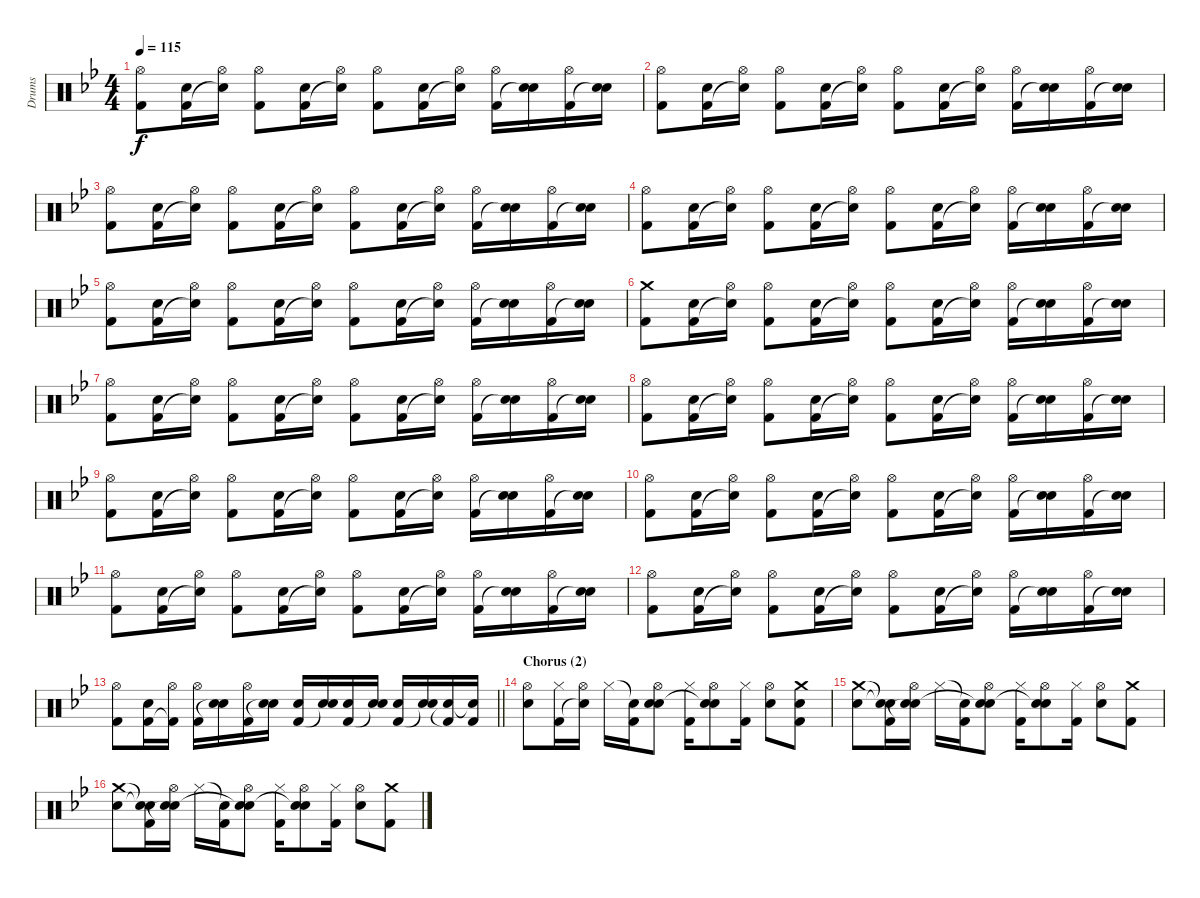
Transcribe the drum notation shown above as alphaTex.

\track ("Drums" "Drums") {instrument percussion}
\staff {score}
\articulation defaults
\ts (4 4)
\tempo 115
\clef neutral
\ks bb
("Hi-Hat (open)" "Kick (hit) 2").8{dy f} ("Electric Snare (hit)" "Kick (hit) 2").16 ("Hi-Hat (open)" "Snare (hit)"{t}).16 ("Hi-Hat (open)" "Kick (hit) 2").8 ("Electric Snare (hit)" "Kick (hit) 2").16 ("Hi-Hat (open)" "Snare (hit)"{t}).16 ("Hi-Hat (open)" "Kick (hit) 2").8 ("Electric Snare (hit)" "Kick (hit) 2").16 ("Hi-Hat (open)" "Snare (hit)"{t}).16 ("Hi-Hat (open)" "Kick (hit) 2").16 ("Electric Snare (hit)" "Snare (hit)"{t}).16 ("Hi-Hat (open)" "Kick (hit) 2").16 ("Electric Snare (hit)" "Snare (hit)"{t}).16 |
("Hi-Hat (open)" "Kick (hit) 2").8 ("Electric Snare (hit)" "Kick (hit) 2").16 ("Hi-Hat (open)" "Snare (hit)"{t}).16 ("Hi-Hat (open)" "Kick (hit) 2").8 ("Electric Snare (hit)" "Kick (hit) 2").16 ("Hi-Hat (open)" "Snare (hit)"{t}).16 ("Hi-Hat (open)" "Kick (hit) 2").8 ("Electric Snare (hit)" "Kick (hit) 2").16 ("Hi-Hat (open)" "Snare (hit)"{t}).16 ("Hi-Hat (open)" "Kick (hit) 2").16 ("Electric Snare (hit)" "Snare (hit)"{t}).16 ("Hi-Hat (open)" "Kick (hit) 2").16 ("Electric Snare (hit)" "Snare (hit)"{t}).16 |
("Hi-Hat (open)" "Kick (hit) 2").8 ("Electric Snare (hit)" "Kick (hit) 2").16 ("Hi-Hat (open)" "Snare (hit)"{t}).16 ("Hi-Hat (open)" "Kick (hit) 2").8 ("Electric Snare (hit)" "Kick (hit) 2").16 ("Hi-Hat (open)" "Snare (hit)"{t}).16 ("Hi-Hat (open)" "Kick (hit) 2").8 ("Electric Snare (hit)" "Kick (hit) 2").16 ("Hi-Hat (open)" "Snare (hit)"{t}).16 ("Hi-Hat (open)" "Kick (hit) 2").16 ("Electric Snare (hit)" "Snare (hit)"{t}).16 ("Hi-Hat (open)" "Kick (hit) 2").16 ("Electric Snare (hit)" "Snare (hit)"{t}).16 |
("Hi-Hat (open)" "Kick (hit) 2").8 ("Electric Snare (hit)" "Kick (hit) 2").16 ("Hi-Hat (open)" "Snare (hit)"{t}).16 ("Hi-Hat (open)" "Kick (hit) 2").8 ("Electric Snare (hit)" "Kick (hit) 2").16 ("Hi-Hat (open)" "Snare (hit)"{t}).16 ("Hi-Hat (open)" "Kick (hit) 2").8 ("Electric Snare (hit)" "Kick (hit) 2").16 ("Hi-Hat (open)" "Snare (hit)"{t}).16 ("Hi-Hat (open)" "Kick (hit) 2").16 ("Electric Snare (hit)" "Snare (hit)"{t}).16 ("Hi-Hat (open)" "Kick (hit) 2").16 ("Electric Snare (hit)" "Snare (hit)"{t}).16 |
("Hi-Hat (open)" "Kick (hit) 2").8 ("Electric Snare (hit)" "Kick (hit) 2").16 ("Hi-Hat (open)" "Snare (hit)"{t}).16 ("Hi-Hat (open)" "Kick (hit) 2").8 ("Electric Snare (hit)" "Kick (hit) 2").16 ("Hi-Hat (open)" "Snare (hit)"{t}).16 ("Hi-Hat (open)" "Kick (hit) 2").8 ("Electric Snare (hit)" "Kick (hit) 2").16 ("Hi-Hat (open)" "Snare (hit)"{t}).16 ("Hi-Hat (open)" "Kick (hit) 2").16 ("Electric Snare (hit)" "Snare (hit)"{t}).16 ("Hi-Hat (open)" "Kick (hit) 2").16 ("Electric Snare (hit)" "Snare (hit)"{t}).16 |
("Crash medium (hit)" "Kick (hit) 2").8 ("Electric Snare (hit)" "Kick (hit) 2").16 ("Hi-Hat (open)" "Snare (hit)"{t}).16 ("Hi-Hat (open)" "Kick (hit) 2").8 ("Electric Snare (hit)" "Kick (hit) 2").16 ("Hi-Hat (open)" "Snare (hit)"{t}).16 ("Hi-Hat (open)" "Kick (hit) 2").8 ("Electric Snare (hit)" "Kick (hit) 2").16 ("Hi-Hat (open)" "Snare (hit)"{t}).16 ("Hi-Hat (open)" "Kick (hit) 2").16 ("Electric Snare (hit)" "Snare (hit)"{t}).16 ("Hi-Hat (open)" "Kick (hit) 2").16 ("Electric Snare (hit)" "Snare (hit)"{t}).16 |
("Hi-Hat (open)" "Kick (hit) 2").8 ("Electric Snare (hit)" "Kick (hit) 2").16 ("Hi-Hat (open)" "Snare (hit)"{t}).16 ("Hi-Hat (open)" "Kick (hit) 2").8 ("Electric Snare (hit)" "Kick (hit) 2").16 ("Hi-Hat (open)" "Snare (hit)"{t}).16 ("Hi-Hat (open)" "Kick (hit) 2").8 ("Electric Snare (hit)" "Kick (hit) 2").16 ("Hi-Hat (open)" "Snare (hit)"{t}).16 ("Hi-Hat (open)" "Kick (hit) 2").16 ("Electric Snare (hit)" "Snare (hit)"{t}).16 ("Hi-Hat (open)" "Kick (hit) 2").16 ("Electric Snare (hit)" "Snare (hit)"{t}).16 |
("Hi-Hat (open)" "Kick (hit) 2").8 ("Electric Snare (hit)" "Kick (hit) 2").16 ("Hi-Hat (open)" "Snare (hit)"{t}).16 ("Hi-Hat (open)" "Kick (hit) 2").8 ("Electric Snare (hit)" "Kick (hit) 2").16 ("Hi-Hat (open)" "Snare (hit)"{t}).16 ("Hi-Hat (open)" "Kick (hit) 2").8 ("Electric Snare (hit)" "Kick (hit) 2").16 ("Hi-Hat (open)" "Snare (hit)"{t}).16 ("Hi-Hat (open)" "Kick (hit) 2").16 ("Electric Snare (hit)" "Snare (hit)"{t}).16 ("Hi-Hat (open)" "Kick (hit) 2").16 ("Electric Snare (hit)" "Snare (hit)"{t}).16 |
("Hi-Hat (open)" "Kick (hit) 2").8 ("Electric Snare (hit)" "Kick (hit) 2").16 ("Hi-Hat (open)" "Snare (hit)"{t}).16 ("Hi-Hat (open)" "Kick (hit) 2").8 ("Electric Snare (hit)" "Kick (hit) 2").16 ("Hi-Hat (open)" "Snare (hit)"{t}).16 ("Hi-Hat (open)" "Kick (hit) 2").8 ("Electric Snare (hit)" "Kick (hit) 2").16 ("Hi-Hat (open)" "Snare (hit)"{t}).16 ("Hi-Hat (open)" "Kick (hit) 2").16 ("Electric Snare (hit)" "Snare (hit)"{t}).16 ("Hi-Hat (open)" "Kick (hit) 2").16 ("Electric Snare (hit)" "Snare (hit)"{t}).16 |
("Hi-Hat (open)" "Kick (hit) 2").8 ("Electric Snare (hit)" "Kick (hit) 2").16 ("Hi-Hat (open)" "Snare (hit)"{t}).16 ("Hi-Hat (open)" "Kick (hit) 2").8 ("Electric Snare (hit)" "Kick (hit) 2").16 ("Hi-Hat (open)" "Snare (hit)"{t}).16 ("Hi-Hat (open)" "Kick (hit) 2").8 ("Electric Snare (hit)" "Kick (hit) 2").16 ("Hi-Hat (open)" "Snare (hit)"{t}).16 ("Hi-Hat (open)" "Kick (hit) 2").16 ("Electric Snare (hit)" "Snare (hit)"{t}).16 ("Hi-Hat (open)" "Kick (hit) 2").16 ("Electric Snare (hit)" "Snare (hit)"{t}).16 |
("Hi-Hat (open)" "Kick (hit) 2").8 ("Electric Snare (hit)" "Kick (hit) 2").16 ("Hi-Hat (open)" "Snare (hit)"{t}).16 ("Hi-Hat (open)" "Kick (hit) 2").8 ("Electric Snare (hit)" "Kick (hit) 2").16 ("Hi-Hat (open)" "Snare (hit)"{t}).16 ("Hi-Hat (open)" "Kick (hit) 2").8 ("Electric Snare (hit)" "Kick (hit) 2").16 ("Hi-Hat (open)" "Snare (hit)"{t}).16 ("Hi-Hat (open)" "Kick (hit) 2").16 ("Electric Snare (hit)" "Snare (hit)"{t}).16 ("Hi-Hat (open)" "Kick (hit) 2").16 ("Electric Snare (hit)" "Snare (hit)"{t}).16 |
("Hi-Hat (open)" "Kick (hit) 2").8 ("Electric Snare (hit)" "Kick (hit) 2").16 ("Hi-Hat (open)" "Snare (hit)"{t}).16 ("Hi-Hat (open)" "Kick (hit) 2").8 ("Electric Snare (hit)" "Kick (hit) 2").16 ("Hi-Hat (open)" "Snare (hit)"{t}).16 ("Hi-Hat (open)" "Kick (hit) 2").8 ("Electric Snare (hit)" "Kick (hit) 2").16 ("Hi-Hat (open)" "Snare (hit)"{t}).16 ("Hi-Hat (open)" "Kick (hit) 2").16 ("Electric Snare (hit)" "Snare (hit)"{t}).16 ("Hi-Hat (open)" "Kick (hit) 2").16 ("Electric Snare (hit)" "Snare (hit)"{t}).16 |
\barLineRight lightlight
("Hi-Hat (open)" "Kick (hit) 2").8 ("Electric Snare (hit)" "Kick (hit) 2").16 ("Hi-Hat (open)" "Kick (hit) 2"{t}).16 ("Hi-Hat (open)" "Kick (hit) 2").16 ("Electric Snare (hit)" "Snare (hit)"{t}).16 ("Hi-Hat (open)" "Kick (hit) 2").16 ("Electric Snare (hit)" "Snare (hit)"{t}).16 ("Electric Snare (hit)" "Kick (hit) 2").16 ("Electric Snare (hit)" "Snare (hit)"{t}).16 ("Electric Snare (hit)" "Kick (hit) 2").16 ("Electric Snare (hit)" "Snare (hit)"{t}).16 ("Electric Snare (hit)" "Kick (hit) 2").16 ("Electric Snare (hit)" "Snare (hit)"{t}).16 ("Electric Snare (hit)" "Kick (hit) 2"{t}).16 ("Electric Snare (hit)"{t} "Kick (hit) 2").16 |
\section ("" "Chorus (2)")
("Hi-Hat (open)" "Electric Snare (hit)").8 ("Hi-Hat (closed)" "Kick (hit) 2").16 ("Hi-Hat (open)" "Snare (hit)"{t}).16 "Hi-Hat (closed)".16 ("Snare (hit)"{t} "Kick (hit) 2").16 ("Hi-Hat (open)" "Electric Snare (hit)" "Snare (hit)").8 ("Hi-Hat (closed)" "Kick (hit) 2").16 ("Hi-Hat (open)" "Electric Snare (hit)" "Snare (hit)"{t}).8 ("Hi-Hat (closed)" "Kick (hit) 2").16 ("Hi-Hat (open)" "Electric Snare (hit)").8 ("Crash medium (hit)" "Electric Snare (hit)" "Kick (hit) 2").8 |
("Crash medium (hit)" "Electric Snare (hit)").8 ("Snare (hit)"{t} "Snare (hit)"{t} "Kick (hit) 2").16 ("Hi-Hat (open)" "Electric Snare (hit)" "Snare (hit)"{t}).16 "Hi-Hat (closed)".16 ("Snare (hit)"{t} "Kick (hit) 2").16 ("Hi-Hat (open)" "Electric Snare (hit)" "Snare (hit)"{t}).8 ("Hi-Hat (closed)" "Kick (hit) 2").16 ("Hi-Hat (open)" "Electric Snare (hit)" "Snare (hit)"{t}).8 ("Hi-Hat (closed)" "Kick (hit) 2").16 ("Hi-Hat (open)" "Electric Snare (hit)").8 ("Crash medium (hit)" "Kick (hit) 2").8 |
("Crash medium (hit)" "Electric Snare (hit)").8 ("Snare (hit)"{t} "Snare (hit)"{t} "Kick (hit) 2").16 ("Hi-Hat (open)" "Electric Snare (hit)" "Snare (hit)"{t}).16 "Hi-Hat (closed)".16 ("Snare (hit)"{t} "Kick (hit) 2").16 ("Hi-Hat (open)" "Electric Snare (hit)" "Snare (hit)"{t}).8 ("Hi-Hat (closed)" "Kick (hit) 2").16 ("Hi-Hat (open)" "Electric Snare (hit)" "Snare (hit)"{t}).8 ("Hi-Hat (closed)" "Kick (hit) 2").16 ("Hi-Hat (open)" "Electric Snare (hit)").8 ("Crash medium (hit)" "Kick (hit) 2").8
